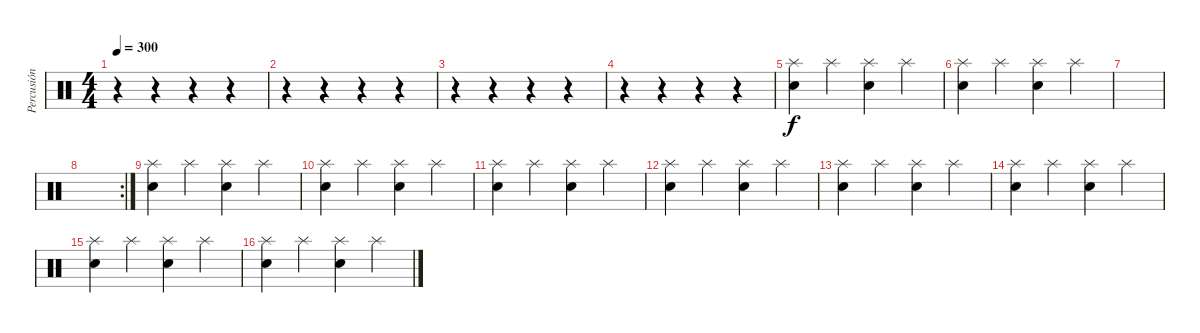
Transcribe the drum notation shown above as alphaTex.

\track ("Percusión" "Percusión") {instrument percussion}
\staff {score}
\articulation defaults
\ts (4 4)
\tempo 300
\clef neutral
\ks c
r.4{dy f} r.4 r.4 r.4 |
r.4 r.4 r.4 r.4 |
r.4 r.4 r.4 r.4 |
r.4 r.4 r.4 r.4 |
("Electric Snare (hit)" "Splash (hit)").4 "Splash (hit)".4 ("Electric Snare (hit)" "Splash (hit)").4 "Splash (hit)".4 |
("Electric Snare (hit)" "Splash (hit)").4 "Splash (hit)".4 ("Electric Snare (hit)" "Splash (hit)").4 "Splash (hit)".4 |
|
\rc 2
|
("Electric Snare (hit)" "Splash (hit)").4 "Splash (hit)".4 ("Electric Snare (hit)" "Splash (hit)").4 "Splash (hit)".4 |
("Electric Snare (hit)" "Splash (hit)").4 "Splash (hit)".4 ("Electric Snare (hit)" "Splash (hit)").4 "Splash (hit)".4 |
("Electric Snare (hit)" "Splash (hit)").4 "Splash (hit)".4 ("Electric Snare (hit)" "Splash (hit)").4 "Splash (hit)".4 |
("Electric Snare (hit)" "Splash (hit)").4 "Splash (hit)".4 ("Electric Snare (hit)" "Splash (hit)").4 "Splash (hit)".4 |
("Electric Snare (hit)" "Splash (hit)").4 "Splash (hit)".4 ("Electric Snare (hit)" "Splash (hit)").4 "Splash (hit)".4 |
("Electric Snare (hit)" "Splash (hit)").4 "Splash (hit)".4 ("Electric Snare (hit)" "Splash (hit)").4 "Splash (hit)".4 |
("Electric Snare (hit)" "Splash (hit)").4 "Splash (hit)".4 ("Electric Snare (hit)" "Splash (hit)").4 "Splash (hit)".4 |
("Electric Snare (hit)" "Splash (hit)").4 "Splash (hit)".4 ("Electric Snare (hit)" "Splash (hit)").4 "Splash (hit)".4
